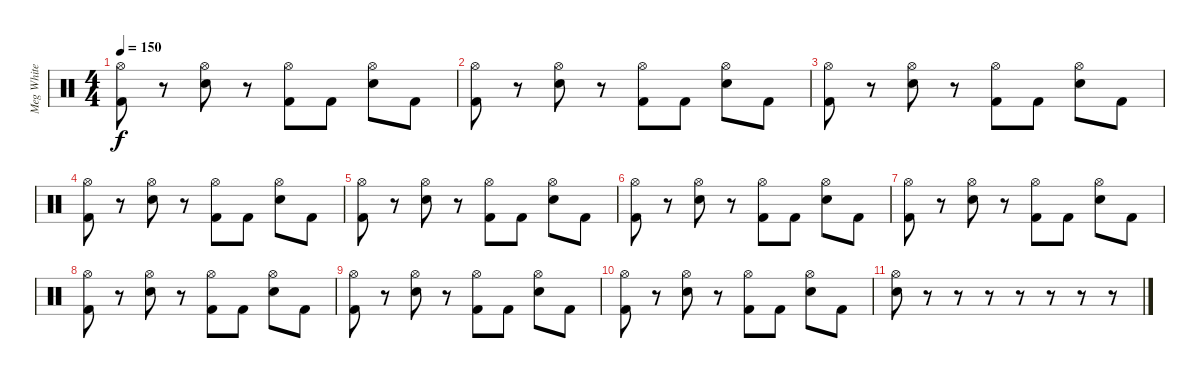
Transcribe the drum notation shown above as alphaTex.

\track ("Meg White - Drums" "Meg White ") {instrument percussion}
\staff {score}
\articulation defaults
\ts (4 4)
\tempo 150
\clef neutral
\ks c
("Hi-Hat (open)" "Kick (hit) 2").8{dy f} r.8 ("Hi-Hat (open)" "Electric Snare (hit)").8 r.8 ("Hi-Hat (open)" "Kick (hit) 2").8 "Kick (hit) 2".8 ("Hi-Hat (open)" "Electric Snare (hit)").8 "Kick (hit) 2".8 |
("Hi-Hat (open)" "Kick (hit) 2").8 r.8 ("Hi-Hat (open)" "Electric Snare (hit)").8 r.8 ("Hi-Hat (open)" "Kick (hit) 2").8 "Kick (hit) 2".8 ("Hi-Hat (open)" "Electric Snare (hit)").8 "Kick (hit) 2".8 |
("Hi-Hat (open)" "Kick (hit) 2").8 r.8 ("Hi-Hat (open)" "Electric Snare (hit)").8 r.8 ("Hi-Hat (open)" "Kick (hit) 2").8 "Kick (hit) 2".8 ("Hi-Hat (open)" "Electric Snare (hit)").8 "Kick (hit) 2".8 |
("Hi-Hat (open)" "Kick (hit) 2").8 r.8 ("Hi-Hat (open)" "Electric Snare (hit)").8 r.8 ("Hi-Hat (open)" "Kick (hit) 2").8 "Kick (hit) 2".8 ("Hi-Hat (open)" "Electric Snare (hit)").8 "Kick (hit) 2".8 |
("Hi-Hat (open)" "Kick (hit) 2").8 r.8 ("Hi-Hat (open)" "Electric Snare (hit)").8 r.8 ("Hi-Hat (open)" "Kick (hit) 2").8 "Kick (hit) 2".8 ("Hi-Hat (open)" "Electric Snare (hit)").8 "Kick (hit) 2".8 |
("Hi-Hat (open)" "Kick (hit) 2").8 r.8 ("Hi-Hat (open)" "Electric Snare (hit)").8 r.8 ("Hi-Hat (open)" "Kick (hit) 2").8 "Kick (hit) 2".8 ("Hi-Hat (open)" "Electric Snare (hit)").8 "Kick (hit) 2".8 |
("Hi-Hat (open)" "Kick (hit) 2").8 r.8 ("Hi-Hat (open)" "Electric Snare (hit)").8 r.8 ("Hi-Hat (open)" "Kick (hit) 2").8 "Kick (hit) 2".8 ("Hi-Hat (open)" "Electric Snare (hit)").8 "Kick (hit) 2".8 |
("Hi-Hat (open)" "Kick (hit) 2").8 r.8 ("Hi-Hat (open)" "Electric Snare (hit)").8 r.8 ("Hi-Hat (open)" "Kick (hit) 2").8 "Kick (hit) 2".8 ("Hi-Hat (open)" "Electric Snare (hit)").8 "Kick (hit) 2".8 |
("Hi-Hat (open)" "Kick (hit) 2").8 r.8 ("Hi-Hat (open)" "Electric Snare (hit)").8 r.8 ("Hi-Hat (open)" "Kick (hit) 2").8 "Kick (hit) 2".8 ("Hi-Hat (open)" "Electric Snare (hit)").8 "Kick (hit) 2".8 |
("Hi-Hat (open)" "Kick (hit) 2").8 r.8 ("Hi-Hat (open)" "Electric Snare (hit)").8 r.8 ("Hi-Hat (open)" "Kick (hit) 2").8 "Kick (hit) 2".8 ("Hi-Hat (open)" "Electric Snare (hit)").8 "Kick (hit) 2".8 |
("Hi-Hat (open)" "Electric Snare (hit)").8 r.8 r.8 r.8 r.8 r.8 r.8 r.8
